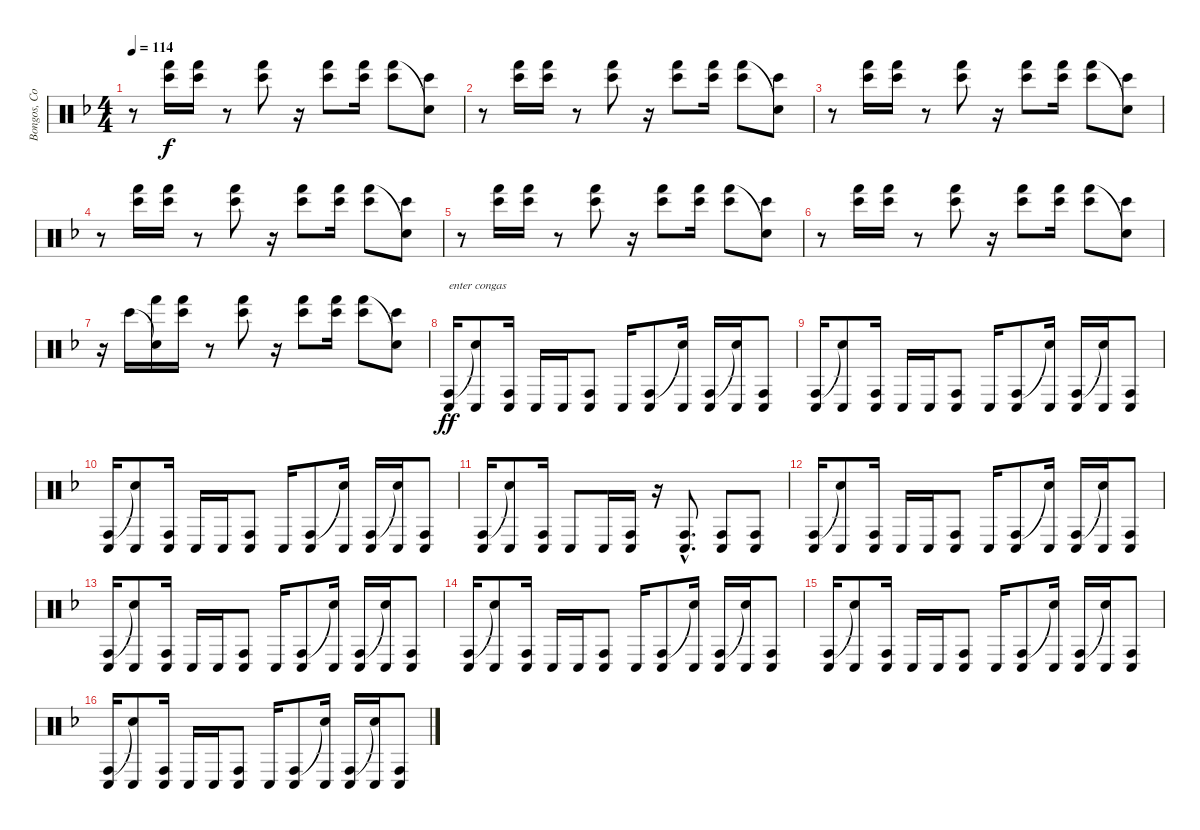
\track ("Bongos, Congas, Timbales" "Bongos, Co") {instrument percussion}
\staff {score}
\articulation defaults
\ts (4 4)
\tempo 114
\clef neutral
\ks f
r.8{dy f} ("Bongo High (hit)" "Hand (hit)").16 ("Bongo High (hit)" "Hand (hit)").16 r.8 ("Bongo High (hit)" "Hand (hit)").8 r.16 ("Bongo High (hit)" "Hand (hit)").8 ("Bongo High (hit)" "Hand (hit)").16 ("Bongo High (hit)" "Hand (hit)").8 ("Bongo High (hit)" "Snare (hit)"{t}).8 |
r.8 ("Bongo High (hit)" "Hand (hit)").16 ("Bongo High (hit)" "Hand (hit)").16 r.8 ("Bongo High (hit)" "Hand (hit)").8 r.16 ("Bongo High (hit)" "Hand (hit)").8 ("Bongo High (hit)" "Hand (hit)").16 ("Bongo High (hit)" "Hand (hit)").8 ("Bongo High (hit)" "Snare (hit)"{t}).8 |
r.8 ("Bongo High (hit)" "Hand (hit)").16 ("Bongo High (hit)" "Hand (hit)").16 r.8 ("Bongo High (hit)" "Hand (hit)").8 r.16 ("Bongo High (hit)" "Hand (hit)").8 ("Bongo High (hit)" "Hand (hit)").16 ("Bongo High (hit)" "Hand (hit)").8 ("Bongo High (hit)" "Snare (hit)"{t}).8 |
r.8 ("Bongo High (hit)" "Hand (hit)").16 ("Bongo High (hit)" "Hand (hit)").16 r.8 ("Bongo High (hit)" "Hand (hit)").8 r.16 ("Bongo High (hit)" "Hand (hit)").8 ("Bongo High (hit)" "Hand (hit)").16 ("Bongo High (hit)" "Hand (hit)").8 ("Bongo High (hit)" "Snare (hit)"{t}).8 |
r.8 ("Bongo High (hit)" "Hand (hit)").16 ("Bongo High (hit)" "Hand (hit)").16 r.8 ("Bongo High (hit)" "Hand (hit)").8 r.16 ("Bongo High (hit)" "Hand (hit)").8 ("Bongo High (hit)" "Hand (hit)").16 ("Bongo High (hit)" "Hand (hit)").8 ("Bongo High (hit)" "Snare (hit)"{t}).8 |
r.8 ("Bongo High (hit)" "Hand (hit)").16 ("Bongo High (hit)" "Hand (hit)").16 r.8 ("Bongo High (hit)" "Hand (hit)").8 r.16 ("Bongo High (hit)" "Hand (hit)").8 ("Bongo High (hit)" "Hand (hit)").16 ("Bongo High (hit)" "Hand (hit)").8 ("Bongo High (hit)" "Snare (hit)"{t}).8 |
r.16 "Bongo High (hit)".16 ("Snare (hit)"{t} "Hand (hit)").16 ("Bongo High (hit)" "Hand (hit)").16 r.8 ("Bongo High (hit)" "Hand (hit)").8 r.16 ("Bongo High (hit)" "Hand (hit)").8 ("Bongo High (hit)" "Hand (hit)").16 ("Bongo High (hit)" "Hand (hit)").8 ("Bongo High (hit)" "Snare (hit)"{t}).8 |
("Conga high (hit)" "Conga low (hit)").16{txt "enter congas" dy ff} ("Snare (hit)"{t} "Conga low (hit)").8 ("Conga high (hit)" "Conga low (hit)").16 "Conga low (hit)".16 "Conga low (hit)".16 ("Conga high (hit)" "Conga low (hit)").8 "Conga low (hit)".16 ("Conga high (hit)" "Conga low (hit)").8 ("Snare (hit)"{t} "Conga low (hit)").16 ("Conga high (hit)" "Conga low (hit)").16 ("Snare (hit)"{t} "Conga low (hit)").16 ("Conga high (hit)" "Conga low (hit)").8 |
("Conga high (hit)" "Conga low (hit)").16 ("Snare (hit)"{t} "Conga low (hit)").8 ("Conga high (hit)" "Conga low (hit)").16 "Conga low (hit)".16 "Conga low (hit)".16 ("Conga high (hit)" "Conga low (hit)").8 "Conga low (hit)".16 ("Conga high (hit)" "Conga low (hit)").8 ("Snare (hit)"{t} "Conga low (hit)").16 ("Conga high (hit)" "Conga low (hit)").16 ("Snare (hit)"{t} "Conga low (hit)").16 ("Conga high (hit)" "Conga low (hit)").8 |
("Conga high (hit)" "Conga low (hit)").16 ("Snare (hit)"{t} "Conga low (hit)").8 ("Conga high (hit)" "Conga low (hit)").16 "Conga low (hit)".16 "Conga low (hit)".16 ("Conga high (hit)" "Conga low (hit)").8 "Conga low (hit)".16 ("Conga high (hit)" "Conga low (hit)").8 ("Snare (hit)"{t} "Conga low (hit)").16 ("Conga high (hit)" "Conga low (hit)").16 ("Snare (hit)"{t} "Conga low (hit)").16 ("Conga high (hit)" "Conga low (hit)").8 |
("Conga high (hit)" "Conga low (hit)").16 ("Snare (hit)"{t} "Conga low (hit)").8 ("Conga high (hit)" "Conga low (hit)").16 "Conga low (hit)".8 "Conga low (hit)".16 ("Conga high (hit)" "Conga low (hit)").16 r.16 ("Conga high (hit)"{hac} "Conga low (hit)"{hac}).8{d} ("Conga high (hit)" "Conga low (hit)").8 ("Conga high (hit)" "Conga low (hit)").8 |
("Conga high (hit)" "Conga low (hit)").16 ("Snare (hit)"{t} "Conga low (hit)").8 ("Conga high (hit)" "Conga low (hit)").16 "Conga low (hit)".16 "Conga low (hit)".16 ("Conga high (hit)" "Conga low (hit)").8 "Conga low (hit)".16 ("Conga high (hit)" "Conga low (hit)").8 ("Snare (hit)"{t} "Conga low (hit)").16 ("Conga high (hit)" "Conga low (hit)").16 ("Snare (hit)"{t} "Conga low (hit)").16 ("Conga high (hit)" "Conga low (hit)").8 |
("Conga high (hit)" "Conga low (hit)").16 ("Snare (hit)"{t} "Conga low (hit)").8 ("Conga high (hit)" "Conga low (hit)").16 "Conga low (hit)".16 "Conga low (hit)".16 ("Conga high (hit)" "Conga low (hit)").8 "Conga low (hit)".16 ("Conga high (hit)" "Conga low (hit)").8 ("Snare (hit)"{t} "Conga low (hit)").16 ("Conga high (hit)" "Conga low (hit)").16 ("Snare (hit)"{t} "Conga low (hit)").16 ("Conga high (hit)" "Conga low (hit)").8 |
("Conga high (hit)" "Conga low (hit)").16 ("Snare (hit)"{t} "Conga low (hit)").8 ("Conga high (hit)" "Conga low (hit)").16 "Conga low (hit)".16 "Conga low (hit)".16 ("Conga high (hit)" "Conga low (hit)").8 "Conga low (hit)".16 ("Conga high (hit)" "Conga low (hit)").8 ("Snare (hit)"{t} "Conga low (hit)").16 ("Conga high (hit)" "Conga low (hit)").16 ("Snare (hit)"{t} "Conga low (hit)").16 ("Conga high (hit)" "Conga low (hit)").8 |
("Conga high (hit)" "Conga low (hit)").16 ("Snare (hit)"{t} "Conga low (hit)").8 ("Conga high (hit)" "Conga low (hit)").16 "Conga low (hit)".16 "Conga low (hit)".16 ("Conga high (hit)" "Conga low (hit)").8 "Conga low (hit)".16 ("Conga high (hit)" "Conga low (hit)").8 ("Snare (hit)"{t} "Conga low (hit)").16 ("Conga high (hit)" "Conga low (hit)").16 ("Snare (hit)"{t} "Conga low (hit)").16 ("Conga high (hit)" "Conga low (hit)").8 |
("Conga high (hit)" "Conga low (hit)").16 ("Snare (hit)"{t} "Conga low (hit)").8 ("Conga high (hit)" "Conga low (hit)").16 "Conga low (hit)".16 "Conga low (hit)".16 ("Conga high (hit)" "Conga low (hit)").8 "Conga low (hit)".16 ("Conga high (hit)" "Conga low (hit)").8 ("Snare (hit)"{t} "Conga low (hit)").16 ("Conga high (hit)" "Conga low (hit)").16 ("Snare (hit)"{t} "Conga low (hit)").16 ("Conga high (hit)" "Conga low (hit)").8
